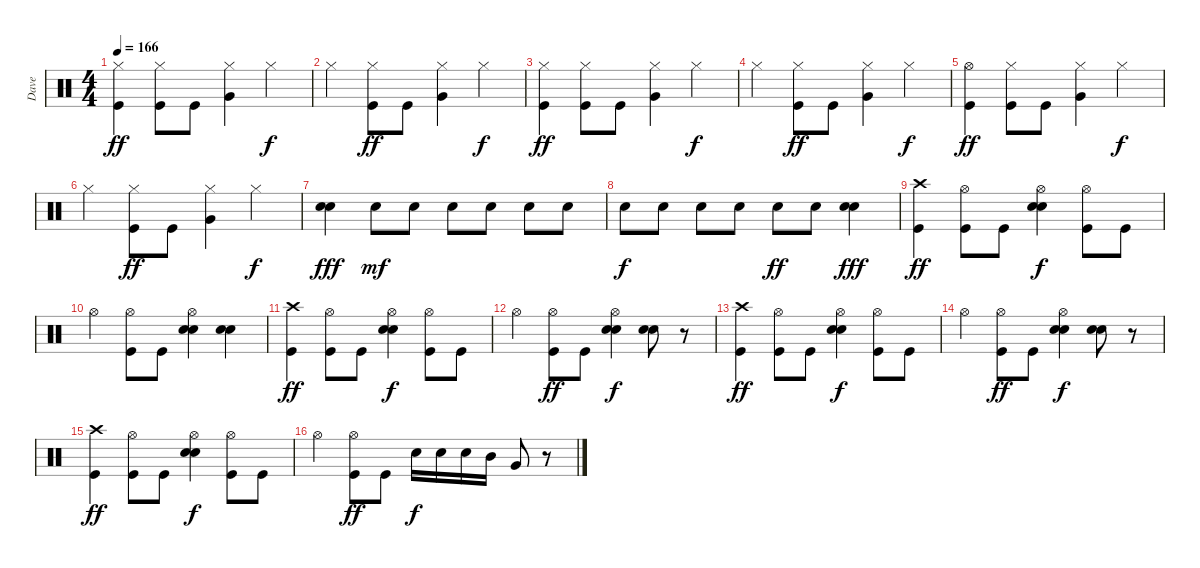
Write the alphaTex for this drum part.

\track ("Dave" "Dave") {instrument percussion}
\staff {score}
\articulation defaults
\ts (4 4)
\tempo 166
\clef neutral
\ks c
("Hi-Hat (closed)" "Kick (hit)").4{dy ff} ("Hi-Hat (closed)" "Kick (hit)").8 "Kick (hit)".8 ("Hi-Hat (closed)" "Very Low Tom (hit)").4 "Hi-Hat (closed)".4{dy f} |
"Hi-Hat (closed)".4 ("Hi-Hat (closed)" "Kick (hit)").8{dy ff} "Kick (hit)".8 ("Hi-Hat (closed)" "Very Low Tom (hit)").4 "Hi-Hat (closed)".4{dy f} |
("Hi-Hat (closed)" "Kick (hit)").4{dy ff} ("Hi-Hat (closed)" "Kick (hit)").8 "Kick (hit)".8 ("Hi-Hat (closed)" "Very Low Tom (hit)").4 "Hi-Hat (closed)".4{dy f} |
"Hi-Hat (closed)".4 ("Hi-Hat (closed)" "Kick (hit)").8{dy ff} "Kick (hit)".8 ("Hi-Hat (closed)" "Very Low Tom (hit)").4 "Hi-Hat (closed)".4{dy f} |
("Hi-Hat (open)" "Kick (hit)").4{dy ff} ("Hi-Hat (closed)" "Kick (hit)").8 "Kick (hit)".8 ("Hi-Hat (closed)" "Very Low Tom (hit)").4 "Hi-Hat (closed)".4{dy f} |
"Hi-Hat (closed)".4 ("Hi-Hat (closed)" "Kick (hit)").8{dy ff} "Kick (hit)".8 ("Hi-Hat (closed)" "Very Low Tom (hit)").4 "Hi-Hat (closed)".4{dy f} |
("Snare (hit) 2" "Snare (hit) 2").4{dy fff} "Snare (hit) 2".8{dy mf} "Snare (hit) 2".8 "Snare (hit) 2".8 "Snare (hit) 2".8 "Snare (hit) 2".8 "Snare (hit) 2".8 |
"Snare (hit) 2".8{dy f} "Snare (hit) 2".8 "Snare (hit) 2".8 "Snare (hit) 2".8 "Snare (hit) 2".8{dy ff} "Snare (hit) 2".8 ("Snare (hit) 2" "Snare (hit) 2").4{dy fff} |
("Crash high (hit)" "Kick (hit)").4{dy ff} ("Hi-Hat (open)" "Kick (hit)").8 "Kick (hit)".8 ("Hi-Hat (open)" "Snare (hit) 2" "Snare (hit) 2").4{dy f} ("Hi-Hat (open)" "Kick (hit)").8 "Kick (hit)".8 |
"Hi-Hat (open)".4 ("Hi-Hat (open)" "Kick (hit)").8 "Kick (hit)".8 ("Hi-Hat (open)" "Snare (hit) 2" "Snare (hit) 2").4 ("Snare (hit) 2" "Snare (hit) 2").4 |
("Crash high (hit)" "Kick (hit)").4{dy ff} ("Hi-Hat (open)" "Kick (hit)").8 "Kick (hit)".8 ("Hi-Hat (open)" "Snare (hit) 2" "Snare (hit) 2").4{dy f} ("Hi-Hat (open)" "Kick (hit)").8 "Kick (hit)".8 |
"Hi-Hat (open)".4 ("Hi-Hat (open)" "Kick (hit)").8{dy ff} "Kick (hit)".8 ("Hi-Hat (open)" "Snare (hit) 2" "Snare (hit) 2").4{dy f} ("Snare (hit) 2" "Snare (hit) 2").8 r.8 |
("Crash high (hit)" "Kick (hit)").4{dy ff} ("Hi-Hat (open)" "Kick (hit)").8 "Kick (hit)".8 ("Hi-Hat (open)" "Snare (hit) 2" "Snare (hit) 2").4{dy f} ("Hi-Hat (open)" "Kick (hit)").8 "Kick (hit)".8 |
"Hi-Hat (open)".4 ("Hi-Hat (open)" "Kick (hit)").8{dy ff} "Kick (hit)".8 ("Hi-Hat (open)" "Snare (hit) 2" "Snare (hit) 2").4{dy f} ("Snare (hit) 2" "Snare (hit) 2").8 r.8 |
("Crash high (hit)" "Kick (hit)").4{dy ff} ("Hi-Hat (open)" "Kick (hit)").8 "Kick (hit)".8 ("Hi-Hat (open)" "Snare (hit) 2" "Snare (hit) 2").4{dy f} ("Hi-Hat (open)" "Kick (hit)").8 "Kick (hit)".8 |
"Hi-Hat (open)".4 ("Hi-Hat (open)" "Kick (hit)").8{dy ff} "Kick (hit)".8 "Snare (hit) 2".16{dy f} "Snare (hit) 2".16 "Snare (hit) 2".16 "Mid Tom (hit)".16 "Very Low Tom (hit)".8 r.8
